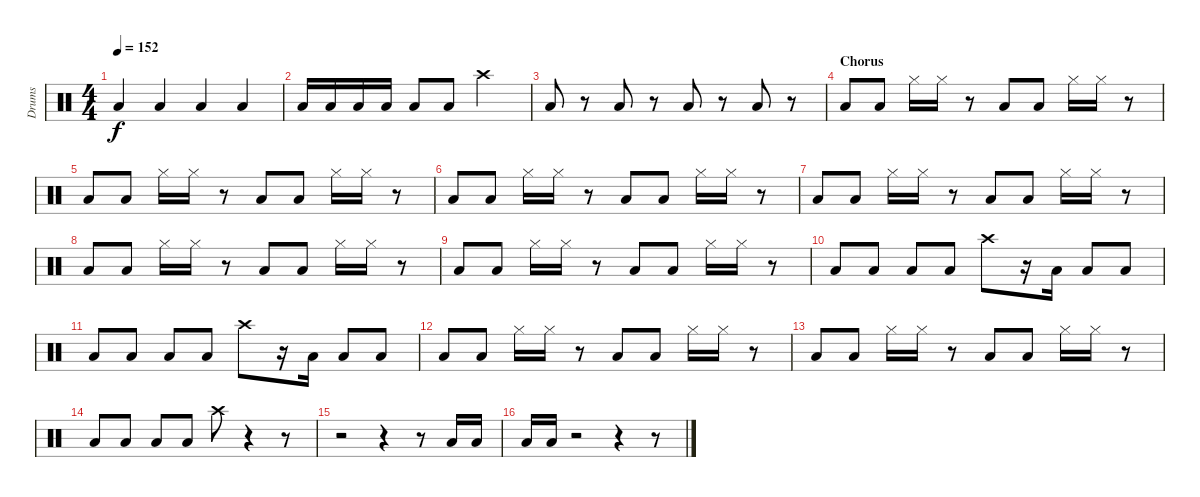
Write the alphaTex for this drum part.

\track ("Drums" "Drums") {instrument percussion}
\staff {score}
\articulation defaults
\ts (4 4)
\tempo 152
\clef neutral
\ks c "Low Tom (hit)".4{dy f} "Low Tom (hit)".4 "Low Tom (hit)".4 "Low Tom (hit)".4
|
"Low Tom (hit)".16 "Low Tom (hit)".16 "Low Tom (hit)".16 "Low Tom (hit)".16 "Low Tom (hit)".8 "Low Tom (hit)".8 "Crash high (hit)".2 |
"Low Tom (hit)".8 r.8 "Low Tom (hit)".8 r.8 "Low Tom (hit)".8 r.8 "Low Tom (hit)".8 r.8 |
\section ("" "Chorus")
"Low Tom (hit)".8 "Low Tom (hit)".8 "Hi-Hat (closed)".16 "Hi-Hat (closed)".16 r.8 "Low Tom (hit)".8 "Low Tom (hit)".8 "Hi-Hat (closed)".16 "Hi-Hat (closed)".16 r.8 |
"Low Tom (hit)".8 "Low Tom (hit)".8 "Hi-Hat (closed)".16 "Hi-Hat (closed)".16 r.8 "Low Tom (hit)".8 "Low Tom (hit)".8 "Hi-Hat (closed)".16 "Hi-Hat (closed)".16 r.8 |
"Low Tom (hit)".8 "Low Tom (hit)".8 "Hi-Hat (closed)".16 "Hi-Hat (closed)".16 r.8 "Low Tom (hit)".8 "Low Tom (hit)".8 "Hi-Hat (closed)".16 "Hi-Hat (closed)".16 r.8 |
"Low Tom (hit)".8 "Low Tom (hit)".8 "Hi-Hat (closed)".16 "Hi-Hat (closed)".16 r.8 "Low Tom (hit)".8 "Low Tom (hit)".8 "Hi-Hat (closed)".16 "Hi-Hat (closed)".16 r.8 |
"Low Tom (hit)".8 "Low Tom (hit)".8 "Hi-Hat (closed)".16 "Hi-Hat (closed)".16 r.8 "Low Tom (hit)".8 "Low Tom (hit)".8 "Hi-Hat (closed)".16 "Hi-Hat (closed)".16 r.8 |
"Low Tom (hit)".8 "Low Tom (hit)".8 "Hi-Hat (closed)".16 "Hi-Hat (closed)".16 r.8 "Low Tom (hit)".8 "Low Tom (hit)".8 "Hi-Hat (closed)".16 "Hi-Hat (closed)".16 r.8 |
"Low Tom (hit)".8 "Low Tom (hit)".8 "Low Tom (hit)".8 "Low Tom (hit)".8 "Crash high (hit)".8 r.16 "Low Tom (hit)".16 "Low Tom (hit)".8 "Low Tom (hit)".8 |
"Low Tom (hit)".8 "Low Tom (hit)".8 "Low Tom (hit)".8 "Low Tom (hit)".8 "Crash high (hit)".8 r.16 "Low Tom (hit)".16 "Low Tom (hit)".8 "Low Tom (hit)".8 |
"Low Tom (hit)".8 "Low Tom (hit)".8 "Hi-Hat (closed)".16 "Hi-Hat (closed)".16 r.8 "Low Tom (hit)".8 "Low Tom (hit)".8 "Hi-Hat (closed)".16 "Hi-Hat (closed)".16 r.8 |
"Low Tom (hit)".8 "Low Tom (hit)".8 "Hi-Hat (closed)".16 "Hi-Hat (closed)".16 r.8 "Low Tom (hit)".8 "Low Tom (hit)".8 "Hi-Hat (closed)".16 "Hi-Hat (closed)".16 r.8 |
"Low Tom (hit)".8 "Low Tom (hit)".8 "Low Tom (hit)".8 "Low Tom (hit)".8 "Crash high (hit)".8 r.4 r.8 |
r.2 r.4 r.8 "Low Tom (hit)".16 "Low Tom (hit)".16 |
"Low Tom (hit)".16 "Low Tom (hit)".16 r.2 r.4 r.8
